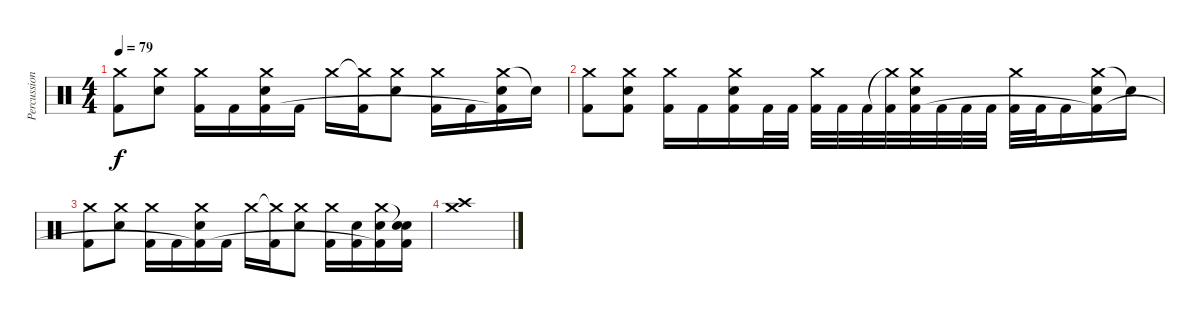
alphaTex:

\track ("Percussion" "Percussion") {instrument percussion}
\staff {score}
\articulation defaults
\ts (4 4)
\tempo 79
\clef neutral
\ks c
("Crash medium (hit)" "Kick (hit) 2").8{dy f} ("Crash medium (hit)" "Snare (hit) 2").8 ("Crash medium (hit)" "Kick (hit) 2").16 "Kick (hit) 2".16 ("Crash medium (hit)" "Snare (hit) 2" "Kick (hit) 2"{t}).16 "Kick (hit) 2".16 "Crash medium (hit)".16 ("Crash medium (hit)"{t} "Kick (hit) 2").16 ("Crash medium (hit)" "Snare (hit) 2").8 ("Crash medium (hit)" "Kick (hit) 2").16 "Kick (hit) 2".16 ("Crash medium (hit)" "Snare (hit) 2" "Kick (hit) 2"{t}).16 "Snare (hit)"{t}.16 |
("Crash medium (hit)" "Kick (hit) 2").8 ("Crash medium (hit)" "Snare (hit) 2" "Kick (hit) 2").8 ("Crash medium (hit)" "Kick (hit) 2").16 "Kick (hit) 2".16 ("Crash medium (hit)" "Snare (hit) 2" "Kick (hit) 2").16 "Kick (hit) 2".32 "Kick (hit) 2".32 ("Crash medium (hit)" "Kick (hit) 2").32 "Kick (hit) 2".32 "Kick (hit) 2".32 ("Crash medium (hit)"{t} "Kick (hit) 2").32 ("Crash medium (hit)" "Snare (hit) 2" "Kick (hit) 2").32 "Kick (hit) 2".32 "Kick (hit) 2".32 "Kick (hit) 2".32 ("Crash medium (hit)" "Kick (hit) 2").32 "Kick (hit) 2".32 "Kick (hit) 2".16 ("Crash medium (hit)" "Snare (hit) 2" "Kick (hit) 2"{t}).16 "Snare (hit)"{t}.16 |
("Crash medium (hit)" "Kick (hit) 2").8 ("Crash medium (hit)" "Snare (hit) 2").8 ("Crash medium (hit)" "Kick (hit) 2").16 "Kick (hit) 2".16 ("Crash medium (hit)" "Snare (hit) 2" "Kick (hit) 2"{t}).16 "Kick (hit) 2".16 "Crash medium (hit)".16 ("Crash medium (hit)"{t} "Kick (hit) 2").16 ("Crash medium (hit)" "Snare (hit) 2").8 ("Crash medium (hit)" "Kick (hit) 2").16 ("Snare (hit) 2" "Kick (hit) 2").16 ("Crash medium (hit)" "Snare (hit) 2" "Kick (hit) 2"{t}).16 ("Snare (hit)"{t} "Snare (hit) 2" "Kick (hit) 2").16 |
("Crash high (hit)" "Crash medium (hit)").1
